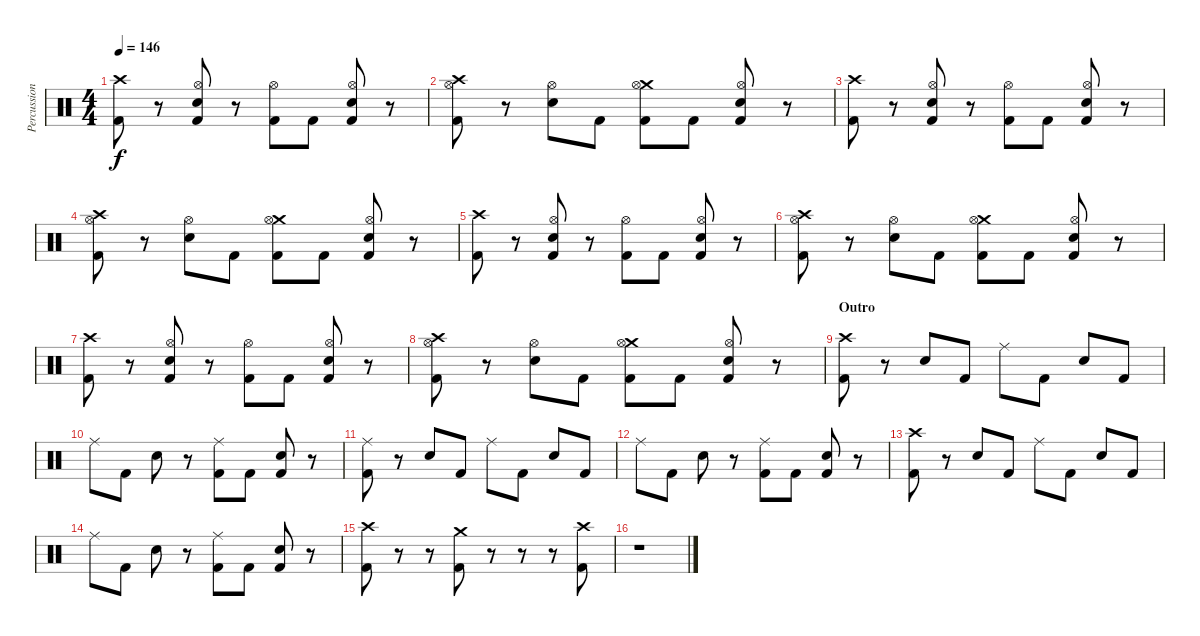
\track ("Percussion" "Percussion") {instrument percussion}
\staff {score}
\articulation defaults
\ts (4 4)
\tempo 146
\clef neutral
\ks c
("Crash high (hit)" "Kick (hit) 2").8{dy f} r.8 ("Hi-Hat (open)" "Electric Snare (hit)" "Kick (hit) 2").8 r.8 ("Hi-Hat (open)" "Kick (hit) 2").8 "Kick (hit) 2".8 ("Hi-Hat (open)" "Electric Snare (hit)" "Kick (hit) 2").8 r.8 |
("Crash high (hit)" "Hi-Hat (open)" "Kick (hit) 2").8 r.8 ("Hi-Hat (open)" "Electric Snare (hit)").8 "Kick (hit) 2".8 ("Crash medium (hit)" "Hi-Hat (open)" "Kick (hit) 2").8 "Kick (hit) 2".8 ("Hi-Hat (open)" "Electric Snare (hit)" "Kick (hit) 2").8 r.8 |
("Crash high (hit)" "Kick (hit) 2").8 r.8 ("Hi-Hat (open)" "Electric Snare (hit)" "Kick (hit) 2").8 r.8 ("Hi-Hat (open)" "Kick (hit) 2").8 "Kick (hit) 2".8 ("Hi-Hat (open)" "Electric Snare (hit)" "Kick (hit) 2").8 r.8 |
("Crash high (hit)" "Hi-Hat (open)" "Kick (hit) 2").8 r.8 ("Hi-Hat (open)" "Electric Snare (hit)").8 "Kick (hit) 2".8 ("Crash medium (hit)" "Hi-Hat (open)" "Kick (hit) 2").8 "Kick (hit) 2".8 ("Hi-Hat (open)" "Electric Snare (hit)" "Kick (hit) 2").8 r.8 |
("Crash high (hit)" "Kick (hit) 2").8 r.8 ("Hi-Hat (open)" "Electric Snare (hit)" "Kick (hit) 2").8 r.8 ("Hi-Hat (open)" "Kick (hit) 2").8 "Kick (hit) 2".8 ("Hi-Hat (open)" "Electric Snare (hit)" "Kick (hit) 2").8 r.8 |
("Crash high (hit)" "Hi-Hat (open)" "Kick (hit) 2").8 r.8 ("Hi-Hat (open)" "Electric Snare (hit)").8 "Kick (hit) 2".8 ("Crash medium (hit)" "Hi-Hat (open)" "Kick (hit) 2").8 "Kick (hit) 2".8 ("Hi-Hat (open)" "Electric Snare (hit)" "Kick (hit) 2").8 r.8 |
("Crash high (hit)" "Kick (hit) 2").8 r.8 ("Hi-Hat (open)" "Electric Snare (hit)" "Kick (hit) 2").8 r.8 ("Hi-Hat (open)" "Kick (hit) 2").8 "Kick (hit) 2".8 ("Hi-Hat (open)" "Electric Snare (hit)" "Kick (hit) 2").8 r.8 |
("Crash high (hit)" "Hi-Hat (open)" "Kick (hit) 2").8 r.8 ("Hi-Hat (open)" "Electric Snare (hit)").8 "Kick (hit) 2".8 ("Crash medium (hit)" "Hi-Hat (open)" "Kick (hit) 2").8 "Kick (hit) 2".8 ("Hi-Hat (open)" "Electric Snare (hit)" "Kick (hit) 2").8 r.8 |
\section ("" "Outro")
("Crash high (hit)" "Kick (hit) 2").8 r.8 "Electric Snare (hit)".8 "Kick (hit) 2".8 "Ride (middle)".8 "Kick (hit) 2".8 "Electric Snare (hit)".8 "Kick (hit) 2".8 |
"Ride (middle)".8 "Kick (hit) 2".8 "Electric Snare (hit)".8 r.8 ("Ride (middle)" "Kick (hit) 2").8 "Kick (hit) 2".8 ("Electric Snare (hit)" "Kick (hit) 2").8 r.8 |
("Ride (middle)" "Kick (hit) 2").8 r.8 "Electric Snare (hit)".8 "Kick (hit) 2".8 "Ride (middle)".8 "Kick (hit) 2".8 "Electric Snare (hit)".8 "Kick (hit) 2".8 |
"Ride (middle)".8 "Kick (hit) 2".8 "Electric Snare (hit)".8 r.8 ("Ride (middle)" "Kick (hit) 2").8 "Kick (hit) 2".8 ("Electric Snare (hit)" "Kick (hit) 2").8 r.8 |
("Crash high (hit)" "Kick (hit) 2").8 r.8 "Electric Snare (hit)".8 "Kick (hit) 2".8 "Ride (middle)".8 "Kick (hit) 2".8 "Electric Snare (hit)".8 "Kick (hit) 2".8 |
"Ride (middle)".8 "Kick (hit) 2".8 "Electric Snare (hit)".8 r.8 ("Ride (middle)" "Kick (hit) 2").8 "Kick (hit) 2".8 ("Electric Snare (hit)" "Kick (hit) 2").8 r.8 |
("Crash high (hit)" "Kick (hit) 2").8 r.8 r.8 ("Crash medium (hit)" "Kick (hit) 2").8 r.8 r.8 r.8 ("Crash high (hit)" "Kick (hit) 2").8 |
r.1
